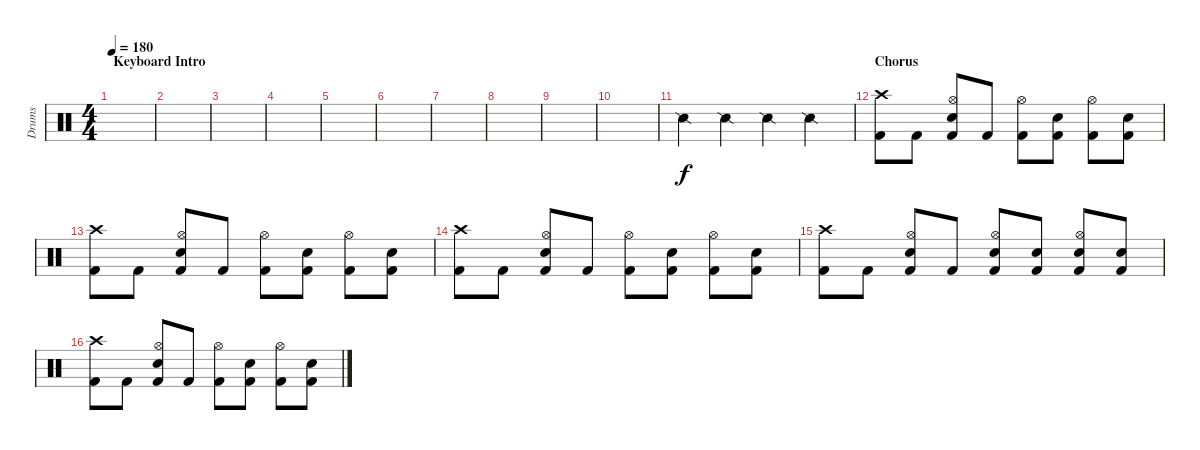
\track ("Drums" "Drums") {instrument percussion}
\staff {score}
\articulation defaults
\ts (4 4)
\section ("" "Keyboard Intro")
\tempo 180
\clef neutral
\ks c
|
|
|
|
|
|
|
|
|
|
"Snare (side stick) 2".4 "Snare (side stick) 2".4 "Snare (side stick) 2".4 "Snare (side stick) 2".4 |
\section ("" "Chorus")
("Crash high (hit)" "Kick (hit) 2").8 "Kick (hit) 2".8 ("Hi-Hat (open)" "Electric Snare (hit)" "Kick (hit) 2").8 "Kick (hit) 2".8 ("Hi-Hat (open)" "Kick (hit) 2").8 ("Electric Snare (hit)" "Kick (hit) 2").8 ("Hi-Hat (open)" "Kick (hit) 2").8 ("Electric Snare (hit)" "Kick (hit) 2").8 |
("Crash high (hit)" "Kick (hit) 2").8 "Kick (hit) 2".8 ("Hi-Hat (open)" "Electric Snare (hit)" "Kick (hit) 2").8 "Kick (hit) 2".8 ("Hi-Hat (open)" "Kick (hit) 2").8 ("Electric Snare (hit)" "Kick (hit) 2").8 ("Hi-Hat (open)" "Kick (hit) 2").8 ("Electric Snare (hit)" "Kick (hit) 2").8 |
("Crash high (hit)" "Kick (hit) 2").8 "Kick (hit) 2".8 ("Hi-Hat (open)" "Electric Snare (hit)" "Kick (hit) 2").8 "Kick (hit) 2".8 ("Hi-Hat (open)" "Kick (hit) 2").8 ("Electric Snare (hit)" "Kick (hit) 2").8 ("Hi-Hat (open)" "Kick (hit) 2").8 ("Electric Snare (hit)" "Kick (hit) 2").8 |
("Crash high (hit)" "Kick (hit) 2").8 "Kick (hit) 2".8 ("Hi-Hat (open)" "Electric Snare (hit)" "Kick (hit) 2").8 "Kick (hit) 2".8 ("Hi-Hat (open)" "Electric Snare (hit)" "Kick (hit) 2").8 ("Electric Snare (hit)" "Kick (hit) 2").8 ("Hi-Hat (open)" "Electric Snare (hit)" "Kick (hit) 2").8 ("Electric Snare (hit)" "Kick (hit) 2").8 |
("Crash high (hit)" "Kick (hit) 2").8 "Kick (hit) 2".8 ("Hi-Hat (open)" "Electric Snare (hit)" "Kick (hit) 2").8 "Kick (hit) 2".8 ("Hi-Hat (open)" "Kick (hit) 2").8 ("Electric Snare (hit)" "Kick (hit) 2").8 ("Hi-Hat (open)" "Kick (hit) 2").8 ("Electric Snare (hit)" "Kick (hit) 2").8
